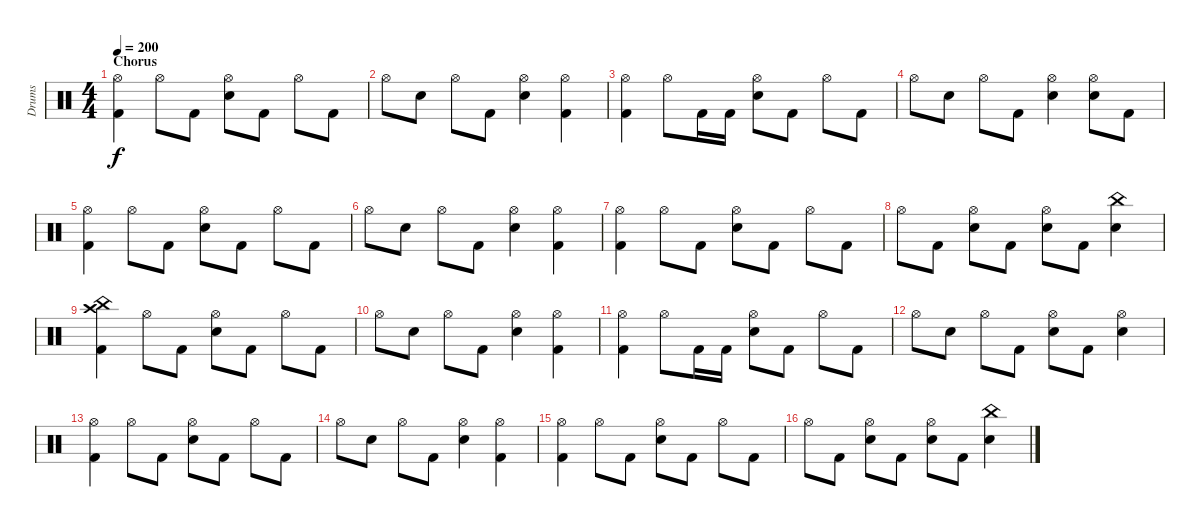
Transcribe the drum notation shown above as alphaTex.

\track ("Drums" "Drums") {instrument percussion}
\staff {score}
\articulation defaults
\ts (4 4)
\section ("" "Chorus")
\tempo 200
\clef neutral
\ks c
("Hi-Hat (open)" "Kick (hit) 2").4{dy f} "Hi-Hat (open)".8 "Kick (hit) 2".8 ("Hi-Hat (open)" "Electric Snare (hit)").8 "Kick (hit) 2".8 "Hi-Hat (open)".8 "Kick (hit) 2".8 |
"Hi-Hat (open)".8 "Electric Snare (hit)".8 "Hi-Hat (open)".8 "Kick (hit) 2".8 ("Hi-Hat (open)" "Electric Snare (hit)").4 ("Hi-Hat (open)" "Kick (hit) 2").4 |
("Hi-Hat (open)" "Kick (hit) 2").4 "Hi-Hat (open)".8 "Kick (hit) 2".16 "Kick (hit) 2".16 ("Hi-Hat (open)" "Electric Snare (hit)").8 "Kick (hit) 2".8 "Hi-Hat (open)".8 "Kick (hit) 2".8 |
"Hi-Hat (open)".8 "Electric Snare (hit)".8 "Hi-Hat (open)".8 "Kick (hit) 2".8 ("Hi-Hat (open)" "Electric Snare (hit)").4 ("Hi-Hat (open)" "Electric Snare (hit)").8 "Kick (hit) 2".8 |
("Hi-Hat (open)" "Kick (hit) 2").4 "Hi-Hat (open)".8 "Kick (hit) 2".8 ("Hi-Hat (open)" "Electric Snare (hit)").8 "Kick (hit) 2".8 "Hi-Hat (open)".8 "Kick (hit) 2".8 |
"Hi-Hat (open)".8 "Electric Snare (hit)".8 "Hi-Hat (open)".8 "Kick (hit) 2".8 ("Hi-Hat (open)" "Electric Snare (hit)").4 ("Hi-Hat (open)" "Kick (hit) 2").4 |
("Hi-Hat (open)" "Kick (hit) 2").4 "Hi-Hat (open)".8 "Kick (hit) 2".8 ("Hi-Hat (open)" "Electric Snare (hit)").8 "Kick (hit) 2".8 "Hi-Hat (open)".8 "Kick (hit) 2".8 |
"Hi-Hat (open)".8 "Kick (hit) 2".8 ("Hi-Hat (open)" "Electric Snare (hit)").8 "Kick (hit) 2".8 ("Hi-Hat (open)" "Electric Snare (hit)").8 "Kick (hit) 2".8 ("China (hit)" "Electric Snare (hit)").4 |
("China (hit)" "Crash high (hit)" "Kick (hit) 2").4 "Hi-Hat (open)".8 "Kick (hit) 2".8 ("Hi-Hat (open)" "Electric Snare (hit)").8 "Kick (hit) 2".8 "Hi-Hat (open)".8 "Kick (hit) 2".8 |
"Hi-Hat (open)".8 "Electric Snare (hit)".8 "Hi-Hat (open)".8 "Kick (hit) 2".8 ("Hi-Hat (open)" "Electric Snare (hit)").4 ("Hi-Hat (open)" "Kick (hit) 2").4 |
("Hi-Hat (open)" "Kick (hit) 2").4 "Hi-Hat (open)".8 "Kick (hit) 2".16 "Kick (hit) 2".16 ("Hi-Hat (open)" "Electric Snare (hit)").8 "Kick (hit) 2".8 "Hi-Hat (open)".8 "Kick (hit) 2".8 |
"Hi-Hat (open)".8 "Electric Snare (hit)".8 "Hi-Hat (open)".8 "Kick (hit) 2".8 ("Hi-Hat (open)" "Electric Snare (hit)").8 "Kick (hit) 2".8 ("Hi-Hat (open)" "Electric Snare (hit)").4 |
("Hi-Hat (open)" "Kick (hit) 2").4 "Hi-Hat (open)".8 "Kick (hit) 2".8 ("Hi-Hat (open)" "Electric Snare (hit)").8 "Kick (hit) 2".8 "Hi-Hat (open)".8 "Kick (hit) 2".8 |
"Hi-Hat (open)".8 "Electric Snare (hit)".8 "Hi-Hat (open)".8 "Kick (hit) 2".8 ("Hi-Hat (open)" "Electric Snare (hit)").4 ("Hi-Hat (open)" "Kick (hit) 2").4 |
("Hi-Hat (open)" "Kick (hit) 2").4 "Hi-Hat (open)".8 "Kick (hit) 2".8 ("Hi-Hat (open)" "Electric Snare (hit)").8 "Kick (hit) 2".8 "Hi-Hat (open)".8 "Kick (hit) 2".8 |
"Hi-Hat (open)".8 "Kick (hit) 2".8 ("Hi-Hat (open)" "Electric Snare (hit)").8 "Kick (hit) 2".8 ("Hi-Hat (open)" "Electric Snare (hit)").8 "Kick (hit) 2".8 ("China (hit)" "Electric Snare (hit)").4
